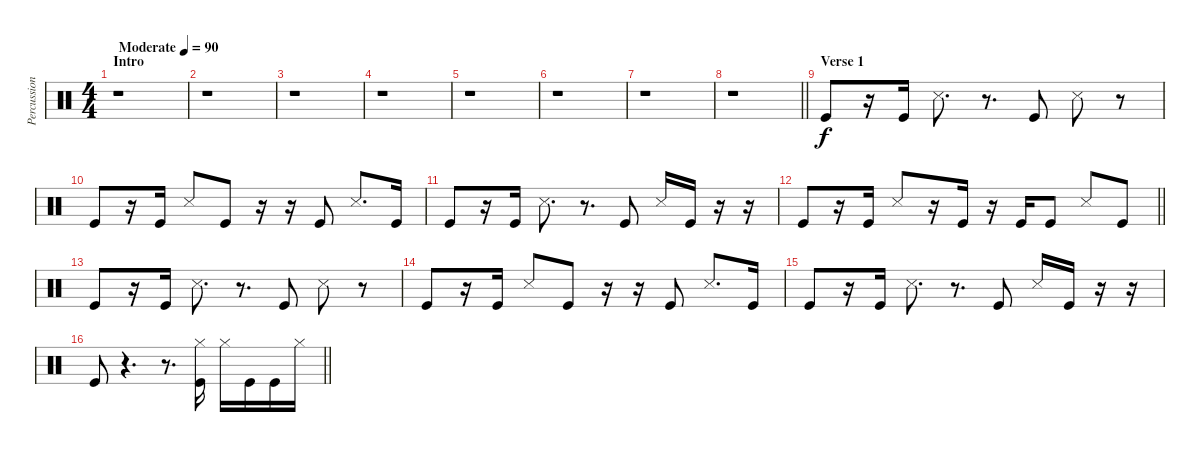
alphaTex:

\track ("Percussion" "Percussion") {instrument percussion}
\staff {score}
\articulation defaults
\ts (4 4)
\section ("" "Intro")
\tempo (90 "Moderate")
\clef neutral
\ks c
r.1{dy f} |
r.1 |
r.1 |
r.1 |
r.1 |
r.1 |
r.1 |
\barLineRight lightlight
r.1 |
\section ("" "Verse 1")
"Kick (hit)".8 r.16 "Kick (hit)".16 "Snare (side stick) 3".8{d} r.8{d} "Kick (hit)".8 "Snare (side stick) 3".8 r.8 |
"Kick (hit)".8 r.16 "Kick (hit)".16 "Snare (side stick) 3".8 "Kick (hit)".8 r.16 r.16 "Kick (hit)".8 "Snare (side stick) 3".8{d} "Kick (hit)".16 |
"Kick (hit)".8 r.16 "Kick (hit)".16 "Snare (side stick) 3".8{d} r.8{d} "Kick (hit)".8 "Snare (side stick) 3".16 "Kick (hit)".16 r.16 r.16 |
\barLineRight lightlight "Kick (hit)".8
r.16 "Kick (hit)".16 "Snare (side stick) 3".8 r.16 "Kick (hit)".16 r.16 "Kick (hit)".16 "Kick (hit)".8 "Snare (side stick) 3".8 "Kick (hit)".8 |
"Kick (hit)".8 r.16 "Kick (hit)".16 "Snare (side stick) 3".8{d} r.8{d} "Kick (hit)".8 "Snare (side stick) 3".8 r.8 |
"Kick (hit)".8 r.16 "Kick (hit)".16 "Snare (side stick) 3".8 "Kick (hit)".8 r.16 r.16 "Kick (hit)".8 "Snare (side stick) 3".8{d} "Kick (hit)".16 |
"Kick (hit)".8 r.16 "Kick (hit)".16 "Snare (side stick) 3".8{d} r.8{d} "Kick (hit)".8 "Snare (side stick) 3".16 "Kick (hit)".16 r.16 r.16 |
\barLineRight lightlight "Kick (hit)".8
r.4{d} r.8{d} ("Hi-Hat (closed)" "Kick (hit)").16 "Hi-Hat (closed)".16 "Kick (hit)".16 "Kick (hit)".16 "Hi-Hat (closed)".16
